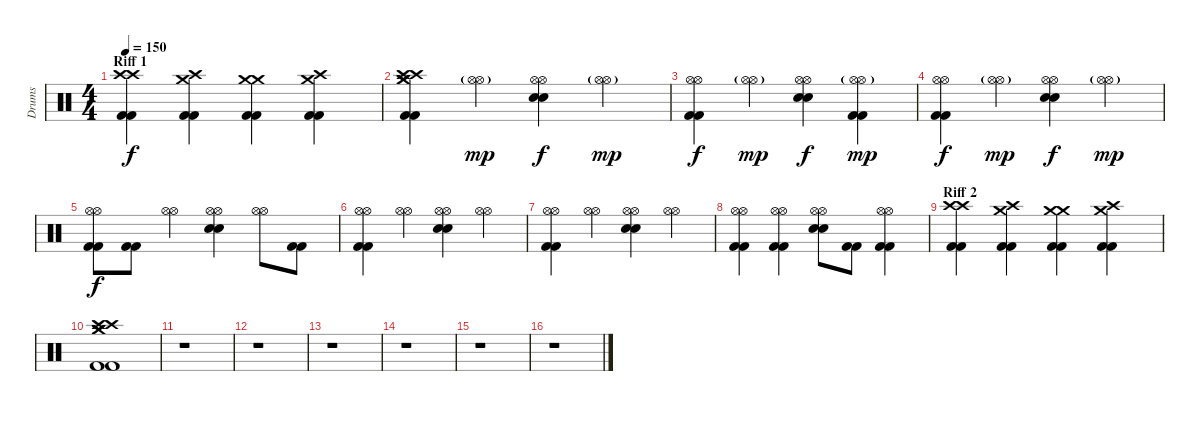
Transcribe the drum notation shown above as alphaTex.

\track ("Drums" "Drums") {instrument percussion}
\staff {score}
\articulation defaults
\ts (4 4)
\section ("" "Riff 1")
\tempo 150
\clef neutral
\ks c
("Crash high (hit)" "Crash high (hit)" "Kick (hit) 2" "Kick (hit) 2").4{dy f} ("Crash high (hit)" "Crash medium (hit)" "Kick (hit) 2" "Kick (hit) 2").4 ("Crash medium (hit)" "Crash medium (hit)" "Kick (hit) 2" "Kick (hit) 2").4 ("Crash medium (hit)" "Crash high (hit)" "Kick (hit) 2" "Kick (hit) 2").4 |
("Crash high (hit)" "Crash high (hit)" "Crash medium (hit)" "Crash medium (hit)" "Kick (hit) 2" "Kick (hit) 2").4 ("Hi-Hat (open)"{g} "Hi-Hat (open)"{g}).4{dy mp} ("Hi-Hat (open)" "Hi-Hat (open)" "Electric Snare (hit)" "Electric Snare (hit)").4{dy f} ("Hi-Hat (open)"{g} "Hi-Hat (open)"{g}).4{dy mp} |
("Hi-Hat (open)" "Hi-Hat (open)" "Kick (hit) 2" "Kick (hit) 2").4{dy f} ("Hi-Hat (open)"{g} "Hi-Hat (open)"{g}).4{dy mp} ("Hi-Hat (open)" "Hi-Hat (open)" "Electric Snare (hit)" "Electric Snare (hit)").4{dy f} ("Hi-Hat (open)"{g} "Hi-Hat (open)"{g} "Kick (hit) 2" "Kick (hit) 2").4{dy mp} |
("Hi-Hat (open)" "Hi-Hat (open)" "Kick (hit) 2" "Kick (hit) 2").4{dy f} ("Hi-Hat (open)"{g} "Hi-Hat (open)"{g}).4{dy mp} ("Hi-Hat (open)" "Hi-Hat (open)" "Electric Snare (hit)" "Electric Snare (hit)").4{dy f} ("Hi-Hat (open)"{g} "Hi-Hat (open)"{g}).4{dy mp} |
("Hi-Hat (open)" "Hi-Hat (open)" "Kick (hit) 2" "Kick (hit) 2").8{dy f} ("Kick (hit) 2" "Kick (hit) 2").8 ("Hi-Hat (open)" "Hi-Hat (open)").4 ("Hi-Hat (open)" "Hi-Hat (open)" "Electric Snare (hit)" "Electric Snare (hit)").4 ("Hi-Hat (open)" "Hi-Hat (open)").8 ("Kick (hit) 2" "Kick (hit) 2").8 |
("Hi-Hat (open)" "Hi-Hat (open)" "Kick (hit) 2" "Kick (hit) 2").4 ("Hi-Hat (open)" "Hi-Hat (open)").4 ("Hi-Hat (open)" "Hi-Hat (open)" "Electric Snare (hit)" "Electric Snare (hit)").4 ("Hi-Hat (open)" "Hi-Hat (open)").4 |
("Hi-Hat (open)" "Hi-Hat (open)" "Kick (hit) 2" "Kick (hit) 2").4 ("Hi-Hat (open)" "Hi-Hat (open)").4 ("Hi-Hat (open)" "Hi-Hat (open)" "Electric Snare (hit)" "Electric Snare (hit)").4 ("Hi-Hat (open)" "Hi-Hat (open)").4 |
("Hi-Hat (open)" "Hi-Hat (open)" "Kick (hit) 2" "Kick (hit) 2").4 ("Hi-Hat (open)" "Hi-Hat (open)" "Kick (hit) 2" "Kick (hit) 2").4 ("Hi-Hat (open)" "Hi-Hat (open)" "Electric Snare (hit)" "Electric Snare (hit)").8 ("Kick (hit) 2" "Kick (hit) 2").8 ("Hi-Hat (open)" "Hi-Hat (open)" "Kick (hit) 2" "Kick (hit) 2").4 |
\section ("" "Riff 2")
("Crash high (hit)" "Crash high (hit)" "Kick (hit) 2" "Kick (hit) 2").4 ("Crash high (hit)" "Crash medium (hit)" "Kick (hit) 2" "Kick (hit) 2").4 ("Crash medium (hit)" "Crash medium (hit)" "Kick (hit) 2" "Kick (hit) 2").4 ("Crash medium (hit)" "Crash high (hit)" "Kick (hit) 2" "Kick (hit) 2").4 |
("Crash high (hit)" "Crash high (hit)" "Crash medium (hit)" "Crash medium (hit)" "Kick (hit) 2" "Kick (hit) 2").1 |
r.1 |
r.1 |
r.1 |
r.1 |
r.1 |
r.1
